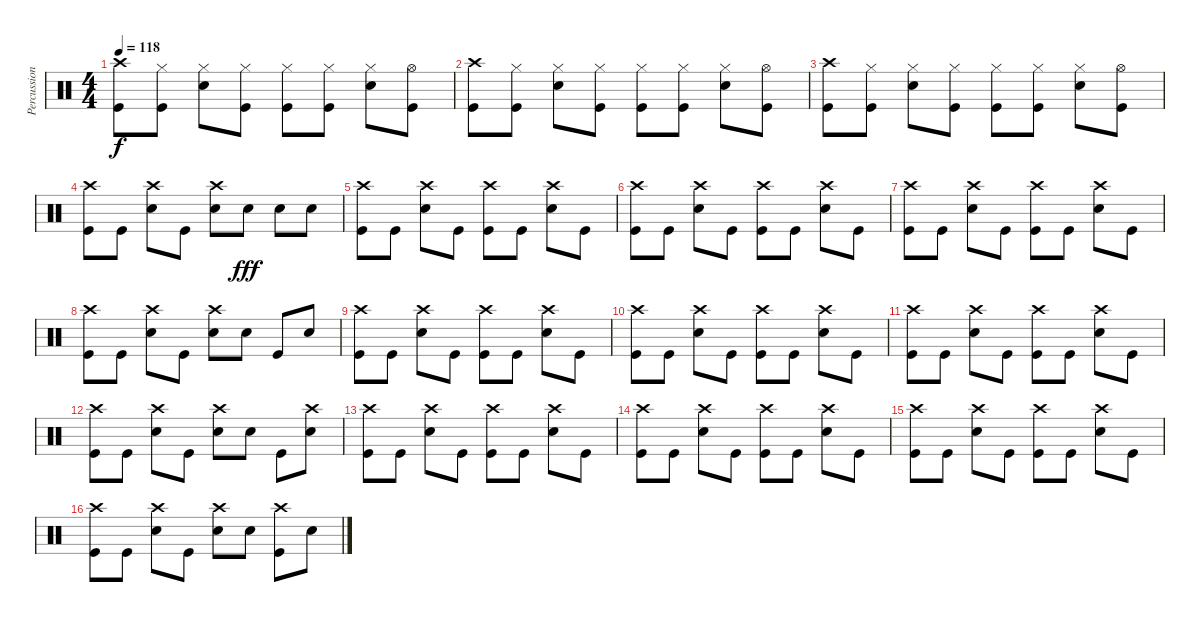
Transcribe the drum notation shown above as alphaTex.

\track ("Percussion" "Percussion") {instrument percussion}
\staff {score}
\articulation defaults
\ts (4 4)
\tempo 118
\clef neutral
\ks c
("Kick (hit)" "Crash high (hit)").8{dy f} ("Kick (hit)" "Hi-Hat (closed)").8 ("Snare (hit) 2" "Hi-Hat (closed)").8 ("Kick (hit)" "Hi-Hat (closed)").8 ("Kick (hit)" "Hi-Hat (closed)").8 ("Kick (hit)" "Hi-Hat (closed)").8 ("Snare (hit) 2" "Hi-Hat (closed)").8 ("Kick (hit)" "Hi-Hat (open)").8 |
("Kick (hit)" "Crash high (hit)").8 ("Kick (hit)" "Hi-Hat (closed)").8 ("Snare (hit) 2" "Hi-Hat (closed)").8 ("Kick (hit)" "Hi-Hat (closed)").8 ("Kick (hit)" "Hi-Hat (closed)").8 ("Kick (hit)" "Hi-Hat (closed)").8 ("Snare (hit) 2" "Hi-Hat (closed)").8 ("Kick (hit)" "Hi-Hat (open)").8 |
("Kick (hit)" "Crash high (hit)").8 ("Kick (hit)" "Hi-Hat (closed)").8 ("Snare (hit) 2" "Hi-Hat (closed)").8 ("Kick (hit)" "Hi-Hat (closed)").8 ("Kick (hit)" "Hi-Hat (closed)").8 ("Kick (hit)" "Hi-Hat (closed)").8 ("Snare (hit) 2" "Hi-Hat (closed)").8 ("Kick (hit)" "Hi-Hat (open)").8 |
("Crash high (hit)" "Kick (hit)").8 "Kick (hit)".8 ("Crash high (hit)" "Snare (hit) 2").8 "Kick (hit)".8 ("Crash high (hit)" "Snare (hit) 2").8 "Snare (hit) 2".8{dy fff} "Snare (hit) 2".8 "Snare (hit) 2".8 |
("Crash high (hit)" "Kick (hit)").8 "Kick (hit)".8 ("Crash high (hit)" "Snare (hit) 2").8 "Kick (hit)".8 ("Crash high (hit)" "Kick (hit)").8 "Kick (hit)".8 ("Crash high (hit)" "Snare (hit) 2").8 "Kick (hit)".8 |
("Crash high (hit)" "Kick (hit)").8 "Kick (hit)".8 ("Crash high (hit)" "Snare (hit) 2").8 "Kick (hit)".8 ("Crash high (hit)" "Kick (hit)").8 "Kick (hit)".8 ("Crash high (hit)" "Snare (hit) 2").8 "Kick (hit)".8 |
("Crash high (hit)" "Kick (hit)").8 "Kick (hit)".8 ("Crash high (hit)" "Snare (hit) 2").8 "Kick (hit)".8 ("Crash high (hit)" "Kick (hit)").8 "Kick (hit)".8 ("Crash high (hit)" "Snare (hit) 2").8 "Kick (hit)".8 |
("Crash high (hit)" "Kick (hit)").8 "Kick (hit)".8 ("Crash high (hit)" "Snare (hit) 2").8 "Kick (hit)".8 ("Crash high (hit)" "Snare (hit) 2").8 "Snare (hit) 2".8 "Kick (hit)".8 "Snare (hit) 2".8 |
("Crash high (hit)" "Kick (hit)").8 "Kick (hit)".8 ("Crash high (hit)" "Snare (hit) 2").8 "Kick (hit)".8 ("Crash high (hit)" "Kick (hit)").8 "Kick (hit)".8 ("Crash high (hit)" "Snare (hit) 2").8 "Kick (hit)".8 |
("Crash high (hit)" "Kick (hit)").8 "Kick (hit)".8 ("Crash high (hit)" "Snare (hit) 2").8 "Kick (hit)".8 ("Crash high (hit)" "Kick (hit)").8 "Kick (hit)".8 ("Crash high (hit)" "Snare (hit) 2").8 "Kick (hit)".8 |
("Crash high (hit)" "Kick (hit)").8 "Kick (hit)".8 ("Crash high (hit)" "Snare (hit) 2").8 "Kick (hit)".8 ("Crash high (hit)" "Kick (hit)").8 "Kick (hit)".8 ("Crash high (hit)" "Snare (hit) 2").8 "Kick (hit)".8 |
("Crash high (hit)" "Kick (hit)").8 "Kick (hit)".8 ("Crash high (hit)" "Snare (hit) 2").8 "Kick (hit)".8 ("Crash high (hit)" "Snare (hit) 2").8 "Snare (hit) 2".8 "Kick (hit)".8 ("Crash high (hit)" "Snare (hit) 2").8 |
("Crash high (hit)" "Kick (hit)").8 "Kick (hit)".8 ("Crash high (hit)" "Snare (hit) 2").8 "Kick (hit)".8 ("Crash high (hit)" "Kick (hit)").8 "Kick (hit)".8 ("Crash high (hit)" "Snare (hit) 2").8 "Kick (hit)".8 |
("Crash high (hit)" "Kick (hit)").8 "Kick (hit)".8 ("Crash high (hit)" "Snare (hit) 2").8 "Kick (hit)".8 ("Crash high (hit)" "Kick (hit)").8 "Kick (hit)".8 ("Crash high (hit)" "Snare (hit) 2").8 "Kick (hit)".8 |
("Crash high (hit)" "Kick (hit)").8 "Kick (hit)".8 ("Crash high (hit)" "Snare (hit) 2").8 "Kick (hit)".8 ("Crash high (hit)" "Kick (hit)").8 "Kick (hit)".8 ("Crash high (hit)" "Snare (hit) 2").8 "Kick (hit)".8 |
("Crash high (hit)" "Kick (hit)").8 "Kick (hit)".8 ("Crash high (hit)" "Snare (hit) 2").8 "Kick (hit)".8 ("Crash high (hit)" "Snare (hit) 2").8 "Snare (hit) 2".8 ("Crash high (hit)" "Kick (hit)").8 "Snare (hit) 2".8
